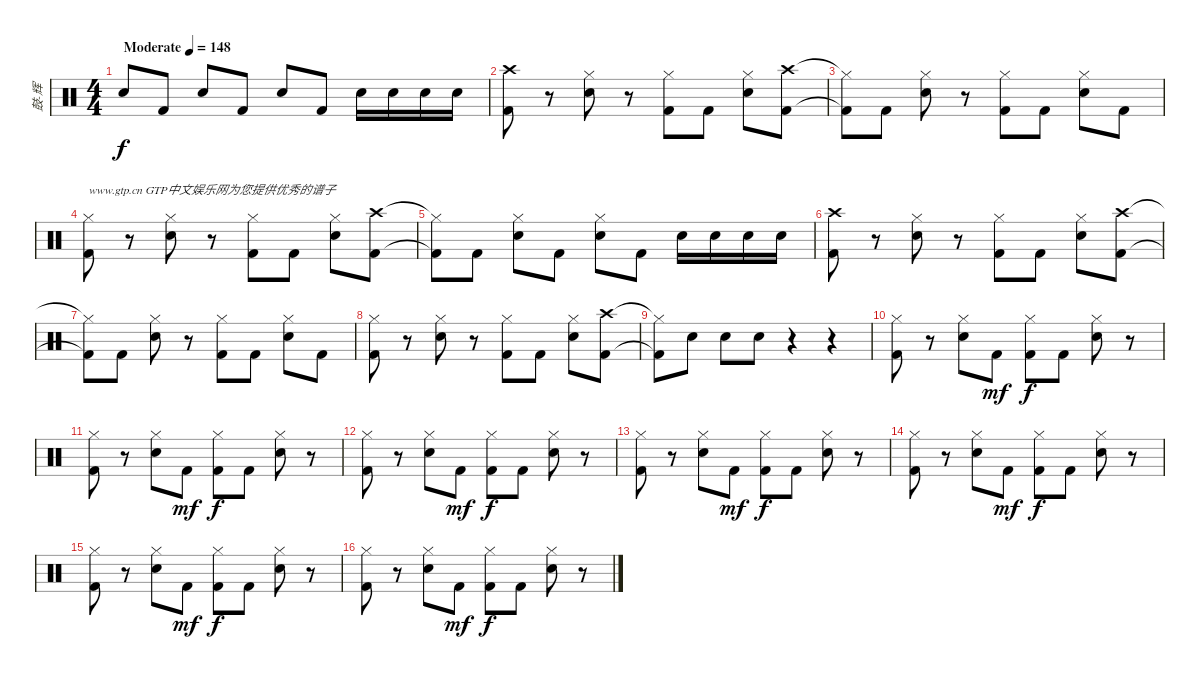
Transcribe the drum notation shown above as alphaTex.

\track ("鼓-辉" "鼓-辉") {instrument percussion}
\staff {score}
\articulation defaults
\ts (4 4)
\tempo (148 "Moderate")
\clef neutral
\ks c "Snare (hit) 2".8{dy f} "Kick (hit) 2".8 "Snare (hit) 2".8 "Kick (hit) 2".8 "Snare (hit) 2".8 "Kick (hit) 2".8 "Snare (hit) 2".16 "Snare (hit) 2".16 "Snare (hit) 2".16 "Snare (hit) 2".16
|
("Crash high (hit)" "Kick (hit) 2").8 r.8 ("Hi-Hat (closed)" "Snare (hit) 2").8 r.8 ("Hi-Hat (closed)" "Kick (hit) 2").8 "Kick (hit) 2".8 ("Hi-Hat (closed)" "Snare (hit) 2").8 ("Crash high (hit)" "Kick (hit) 2").8 |
("Hi-Hat (closed)"{t} "Kick (hit) 2"{t}).8 "Kick (hit) 2".8 ("Hi-Hat (closed)" "Snare (hit) 2").8 r.8 ("Hi-Hat (closed)" "Kick (hit) 2").8 "Kick (hit) 2".8 ("Hi-Hat (closed)" "Snare (hit) 2").8 "Kick (hit) 2".8 |
("Hi-Hat (closed)" "Kick (hit) 2").8{txt "www.gtp.cn GTP中文娱乐网为您提供优秀的谱子"} r.8 ("Hi-Hat (closed)" "Snare (hit) 2").8 r.8 ("Hi-Hat (closed)" "Kick (hit) 2").8 "Kick (hit) 2".8 ("Hi-Hat (closed)" "Snare (hit) 2").8 ("Crash high (hit)" "Kick (hit) 2").8 |
("Hi-Hat (closed)"{t} "Kick (hit) 2"{t}).8 "Kick (hit) 2".8 ("Hi-Hat (closed)" "Snare (hit) 2").8 "Kick (hit) 2".8 ("Hi-Hat (closed)" "Snare (hit) 2").8 "Kick (hit) 2".8 "Snare (hit) 2".16 "Snare (hit) 2".16 "Snare (hit) 2".16 "Snare (hit) 2".16 |
("Crash high (hit)" "Kick (hit) 2").8 r.8 ("Hi-Hat (closed)" "Snare (hit) 2").8 r.8 ("Hi-Hat (closed)" "Kick (hit) 2").8 "Kick (hit) 2".8 ("Hi-Hat (closed)" "Snare (hit) 2").8 ("Crash high (hit)" "Kick (hit) 2").8 |
("Hi-Hat (closed)"{t} "Kick (hit) 2"{t}).8 "Kick (hit) 2".8 ("Hi-Hat (closed)" "Snare (hit) 2").8 r.8 ("Hi-Hat (closed)" "Kick (hit) 2").8 "Kick (hit) 2".8 ("Hi-Hat (closed)" "Snare (hit) 2").8 "Kick (hit) 2".8 |
("Hi-Hat (closed)" "Kick (hit) 2").8 r.8 ("Hi-Hat (closed)" "Snare (hit) 2").8 r.8 ("Hi-Hat (closed)" "Kick (hit) 2").8 "Kick (hit) 2".8 ("Hi-Hat (closed)" "Snare (hit) 2").8 ("Crash high (hit)" "Kick (hit) 2").8 |
("Hi-Hat (closed)"{t} "Kick (hit) 2"{t}).8 "Snare (hit) 2".8 "Snare (hit) 2".8 "Snare (hit) 2".8 r.4 r.4 |
("Hi-Hat (closed)" "Kick (hit) 2").8 r.8 ("Hi-Hat (closed)" "Snare (hit) 2").8 "Kick (hit) 2".8{dy mf} ("Hi-Hat (closed)" "Kick (hit) 2").8{dy f} "Kick (hit) 2".8 ("Hi-Hat (closed)" "Snare (hit) 2").8 r.8 |
("Hi-Hat (closed)" "Kick (hit) 2").8 r.8 ("Hi-Hat (closed)" "Snare (hit) 2").8 "Kick (hit) 2".8{dy mf} ("Hi-Hat (closed)" "Kick (hit) 2").8{dy f} "Kick (hit) 2".8 ("Hi-Hat (closed)" "Snare (hit) 2").8 r.8 |
("Hi-Hat (closed)" "Kick (hit) 2").8 r.8 ("Hi-Hat (closed)" "Snare (hit) 2").8 "Kick (hit) 2".8{dy mf} ("Hi-Hat (closed)" "Kick (hit) 2").8{dy f} "Kick (hit) 2".8 ("Hi-Hat (closed)" "Snare (hit) 2").8 r.8 |
("Hi-Hat (closed)" "Kick (hit) 2").8 r.8 ("Hi-Hat (closed)" "Snare (hit) 2").8 "Kick (hit) 2".8{dy mf} ("Hi-Hat (closed)" "Kick (hit) 2").8{dy f} "Kick (hit) 2".8 ("Hi-Hat (closed)" "Snare (hit) 2").8 r.8 |
("Hi-Hat (closed)" "Kick (hit) 2").8 r.8 ("Hi-Hat (closed)" "Snare (hit) 2").8 "Kick (hit) 2".8{dy mf} ("Hi-Hat (closed)" "Kick (hit) 2").8{dy f} "Kick (hit) 2".8 ("Hi-Hat (closed)" "Snare (hit) 2").8 r.8 |
("Hi-Hat (closed)" "Kick (hit) 2").8 r.8 ("Hi-Hat (closed)" "Snare (hit) 2").8 "Kick (hit) 2".8{dy mf} ("Hi-Hat (closed)" "Kick (hit) 2").8{dy f} "Kick (hit) 2".8 ("Hi-Hat (closed)" "Snare (hit) 2").8 r.8 |
("Hi-Hat (closed)" "Kick (hit) 2").8 r.8 ("Hi-Hat (closed)" "Snare (hit) 2").8 "Kick (hit) 2".8{dy mf} ("Hi-Hat (closed)" "Kick (hit) 2").8{dy f} "Kick (hit) 2".8 ("Hi-Hat (closed)" "Snare (hit) 2").8 r.8
